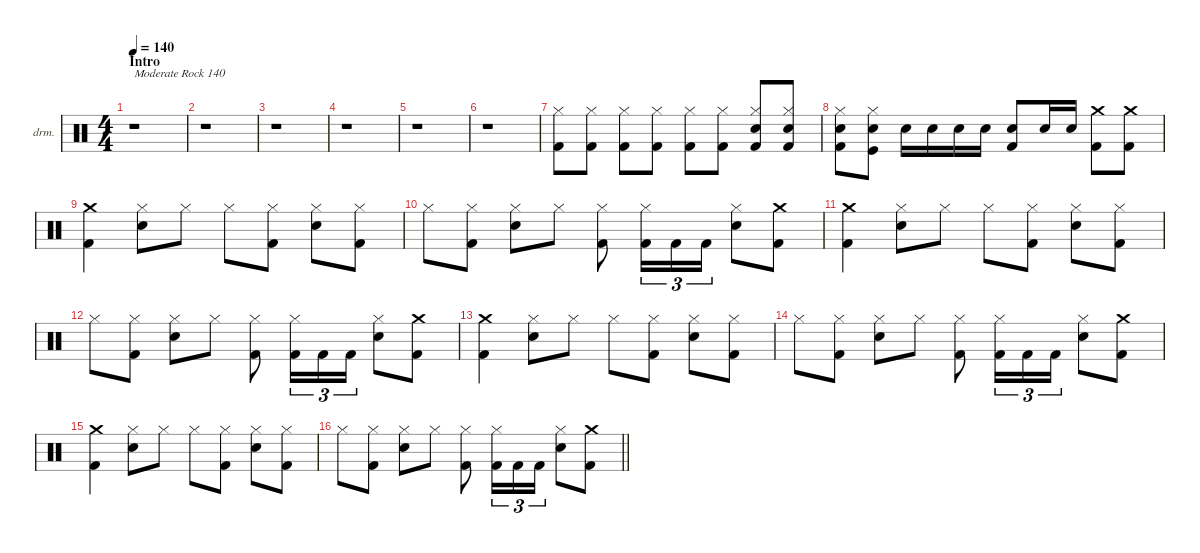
\defaultSystemsLayout 4
\hideDynamics
\bracketExtendMode nobrackets
\firstSystemTrackNameOrientation horizontal
\otherSystemsTrackNameOrientation horizontal
\track ("Drums" "drm.") {instrument percussion}
\staff {score}
\articulation defaults
\ts (4 4)
\beaming (8 2 2 2 2)
\section ("" "Intro")
\tempo 140
\clef neutral
\ks c
r.1{txt "Moderate Rock 140" dy f} |
r.1 |
r.1 |
r.1 |
r.1 |
r.1 |
("Kick (hit) 2" "Hi-Hat (closed)").8 ("Kick (hit) 2" "Hi-Hat (closed)").8 ("Kick (hit) 2" "Hi-Hat (closed)").8 ("Kick (hit) 2" "Hi-Hat (closed)").8 ("Kick (hit) 2" "Hi-Hat (closed)").8 ("Kick (hit) 2" "Hi-Hat (closed)").8 ("Kick (hit) 2" "Snare (hit) 2" "Hi-Hat (closed)").8 ("Kick (hit) 2" "Snare (hit) 2" "Hi-Hat (closed)").8 |
("Kick (hit) 2" "Snare (hit) 2" "Hi-Hat (closed)").8 ("Kick (hit)" "Snare (hit) 2" "Hi-Hat (closed)").8 "Snare (hit) 2".16 "Snare (hit) 2".16 "Snare (hit) 2".16 "Snare (hit) 2".16 ("Kick (hit) 2" "Snare (hit) 2").8 "Snare (hit) 2".16 "Snare (hit) 2".16 ("Kick (hit) 2" "Crash medium (hit)").8 ("Kick (hit) 2" "Crash medium (hit)").8 |
("Crash medium (hit)" "Kick (hit) 2").4 ("Snare (hit) 2" "Hi-Hat (closed)").8 "Hi-Hat (closed)".8 "Hi-Hat (closed)".8 ("Kick (hit) 2" "Hi-Hat (closed)").8 ("Snare (hit) 2" "Hi-Hat (closed)").8 ("Kick (hit) 2" "Hi-Hat (closed)").8 |
"Hi-Hat (closed)".8 ("Kick (hit) 2" "Hi-Hat (closed)").8 ("Snare (hit) 2" "Hi-Hat (closed)").8 "Hi-Hat (closed)".8 ("Kick (hit) 2" "Hi-Hat (closed)").8 ("Kick (hit) 2" "Hi-Hat (closed)").16{tu (3 2)} "Kick (hit) 2".16{tu (3 2)} "Kick (hit) 2".16{tu (3 2)} ("Snare (hit) 2" "Hi-Hat (closed)").8 ("Kick (hit) 2" "Crash medium (hit)").8 |
("Kick (hit) 2" "Crash medium (hit)").4 ("Snare (hit) 2" "Hi-Hat (closed)").8 "Hi-Hat (closed)".8 "Hi-Hat (closed)".8 ("Kick (hit) 2" "Hi-Hat (closed)").8 ("Snare (hit) 2" "Hi-Hat (closed)").8 ("Kick (hit) 2" "Hi-Hat (closed)").8 |
"Hi-Hat (closed)".8 ("Kick (hit) 2" "Hi-Hat (closed)").8 ("Snare (hit) 2" "Hi-Hat (closed)").8 "Hi-Hat (closed)".8 ("Kick (hit) 2" "Hi-Hat (closed)").8 ("Kick (hit) 2" "Hi-Hat (closed)").16{tu (3 2)} "Kick (hit) 2".16{tu (3 2)} "Kick (hit) 2".16{tu (3 2)} ("Snare (hit) 2" "Hi-Hat (closed)").8 ("Kick (hit) 2" "Crash medium (hit)").8 |
("Kick (hit) 2" "Crash medium (hit)").4 ("Snare (hit) 2" "Hi-Hat (closed)").8 "Hi-Hat (closed)".8 "Hi-Hat (closed)".8 ("Kick (hit) 2" "Hi-Hat (closed)").8 ("Snare (hit) 2" "Hi-Hat (closed)").8 ("Kick (hit) 2" "Hi-Hat (closed)").8 |
"Hi-Hat (closed)".8 ("Kick (hit) 2" "Hi-Hat (closed)").8 ("Snare (hit) 2" "Hi-Hat (closed)").8 "Hi-Hat (closed)".8 ("Kick (hit) 2" "Hi-Hat (closed)").8 ("Kick (hit) 2" "Hi-Hat (closed)").16{tu (3 2)} "Kick (hit) 2".16{tu (3 2)} "Kick (hit) 2".16{tu (3 2)} ("Snare (hit) 2" "Hi-Hat (closed)").8 ("Kick (hit) 2" "Crash medium (hit)").8 |
("Kick (hit) 2" "Crash medium (hit)").4 ("Snare (hit) 2" "Hi-Hat (closed)").8 "Hi-Hat (closed)".8 "Hi-Hat (closed)".8 ("Kick (hit) 2" "Hi-Hat (closed)").8 ("Snare (hit) 2" "Hi-Hat (closed)").8 ("Kick (hit) 2" "Hi-Hat (closed)").8 |
\barLineRight lightlight "Hi-Hat (closed)".8
("Kick (hit) 2" "Hi-Hat (closed)").8 ("Snare (hit) 2" "Hi-Hat (closed)").8 "Hi-Hat (closed)".8 ("Kick (hit) 2" "Hi-Hat (closed)").8 ("Kick (hit) 2" "Hi-Hat (closed)").16{tu (3 2)} "Kick (hit) 2".16{tu (3 2)} "Kick (hit) 2".16{tu (3 2)} ("Snare (hit) 2" "Hi-Hat (closed)").8 ("Kick (hit) 2" "Crash medium (hit)").8
